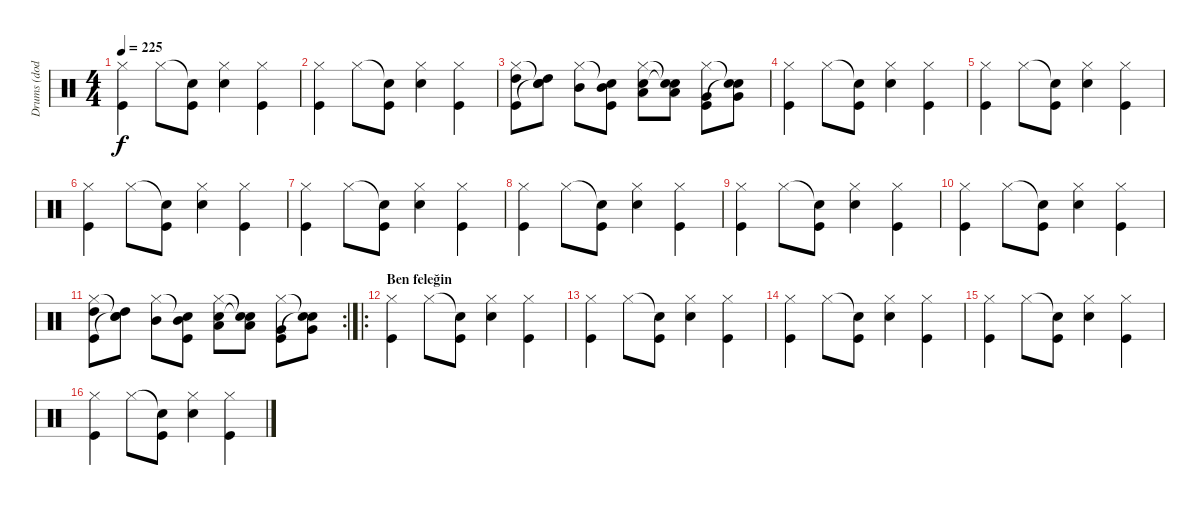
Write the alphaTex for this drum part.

\track ("Drums (dodo)" "Drums (dod") {instrument percussion}
\staff {score}
\articulation defaults
\ts (4 4)
\tempo 225
\clef neutral
\ks c
("Hi-Hat (closed)" "Kick (hit)").4{dy f} "Hi-Hat (closed)".8 ("Snare (hit)"{t} "Kick (hit)").8 ("Hi-Hat (closed)" "Electric Snare (hit)").4 ("Hi-Hat (closed)" "Kick (hit)").4 |
("Hi-Hat (closed)" "Kick (hit)").4 "Hi-Hat (closed)".8 ("Snare (hit)"{t} "Kick (hit)").8 ("Hi-Hat (closed)" "Electric Snare (hit)").4 ("Hi-Hat (closed)" "Kick (hit)").4 |
("Hi-Hat (closed)" "Kick (hit)" "High Tom (hit)").8 ("Snare (hit)"{t} "Snare (hit)"{t} "High Tom (hit)").8 ("Hi-Hat (closed)" "Mid Tom (hit)").8 ("Snare (hit)"{t} "Kick (hit)" "Mid Tom (hit)").8 ("Hi-Hat (closed)" "Electric Snare (hit)" "Low Tom (hit)").8 ("Snare (hit)"{t} "Snare (hit)"{t} "Low Tom (hit)").8 ("Hi-Hat (closed)" "Kick (hit)" "Very Low Tom (hit)").8 ("Snare (hit)"{t} "Snare (hit)"{t} "Very Low Tom (hit)").8 |
("Hi-Hat (closed)" "Kick (hit)").4 "Hi-Hat (closed)".8 ("Snare (hit)"{t} "Kick (hit)").8 ("Hi-Hat (closed)" "Electric Snare (hit)").4 ("Hi-Hat (closed)" "Kick (hit)").4 |
("Hi-Hat (closed)" "Kick (hit)").4 "Hi-Hat (closed)".8 ("Snare (hit)"{t} "Kick (hit)").8 ("Hi-Hat (closed)" "Electric Snare (hit)").4 ("Hi-Hat (closed)" "Kick (hit)").4 |
("Hi-Hat (closed)" "Kick (hit)").4 "Hi-Hat (closed)".8 ("Snare (hit)"{t} "Kick (hit)").8 ("Hi-Hat (closed)" "Electric Snare (hit)").4 ("Hi-Hat (closed)" "Kick (hit)").4 |
("Hi-Hat (closed)" "Kick (hit)").4 "Hi-Hat (closed)".8 ("Snare (hit)"{t} "Kick (hit)").8 ("Hi-Hat (closed)" "Electric Snare (hit)").4 ("Hi-Hat (closed)" "Kick (hit)").4 |
("Hi-Hat (closed)" "Kick (hit)").4 "Hi-Hat (closed)".8 ("Snare (hit)"{t} "Kick (hit)").8 ("Hi-Hat (closed)" "Electric Snare (hit)").4 ("Hi-Hat (closed)" "Kick (hit)").4 |
("Hi-Hat (closed)" "Kick (hit)").4 "Hi-Hat (closed)".8 ("Snare (hit)"{t} "Kick (hit)").8 ("Hi-Hat (closed)" "Electric Snare (hit)").4 ("Hi-Hat (closed)" "Kick (hit)").4 |
("Hi-Hat (closed)" "Kick (hit)").4 "Hi-Hat (closed)".8 ("Snare (hit)"{t} "Kick (hit)").8 ("Hi-Hat (closed)" "Electric Snare (hit)").4 ("Hi-Hat (closed)" "Kick (hit)").4 |
\rc 2
("Hi-Hat (closed)" "Kick (hit)" "High Tom (hit)").8 ("Snare (hit)"{t} "Snare (hit)"{t} "High Tom (hit)").8 ("Hi-Hat (closed)" "Mid Tom (hit)").8 ("Snare (hit)"{t} "Kick (hit)" "Mid Tom (hit)").8 ("Hi-Hat (closed)" "Electric Snare (hit)" "Low Tom (hit)").8 ("Snare (hit)"{t} "Snare (hit)"{t} "Low Tom (hit)").8 ("Hi-Hat (closed)" "Kick (hit)" "Very Low Tom (hit)").8 ("Snare (hit)"{t} "Snare (hit)"{t} "Very Low Tom (hit)").8 |
\ro
\section ("" "Ben feleğin")
("Hi-Hat (closed)" "Kick (hit)").4 "Hi-Hat (closed)".8 ("Snare (hit)"{t} "Kick (hit)").8 ("Hi-Hat (closed)" "Electric Snare (hit)").4 ("Hi-Hat (closed)" "Kick (hit)").4 |
("Hi-Hat (closed)" "Kick (hit)").4 "Hi-Hat (closed)".8 ("Snare (hit)"{t} "Kick (hit)").8 ("Hi-Hat (closed)" "Electric Snare (hit)").4 ("Hi-Hat (closed)" "Kick (hit)").4 |
("Hi-Hat (closed)" "Kick (hit)").4 "Hi-Hat (closed)".8 ("Snare (hit)"{t} "Kick (hit)").8 ("Hi-Hat (closed)" "Electric Snare (hit)").4 ("Hi-Hat (closed)" "Kick (hit)").4 |
("Hi-Hat (closed)" "Kick (hit)").4 "Hi-Hat (closed)".8 ("Snare (hit)"{t} "Kick (hit)").8 ("Hi-Hat (closed)" "Electric Snare (hit)").4 ("Hi-Hat (closed)" "Kick (hit)").4 |
("Hi-Hat (closed)" "Kick (hit)").4 "Hi-Hat (closed)".8 ("Snare (hit)"{t} "Kick (hit)").8 ("Hi-Hat (closed)" "Electric Snare (hit)").4 ("Hi-Hat (closed)" "Kick (hit)").4
